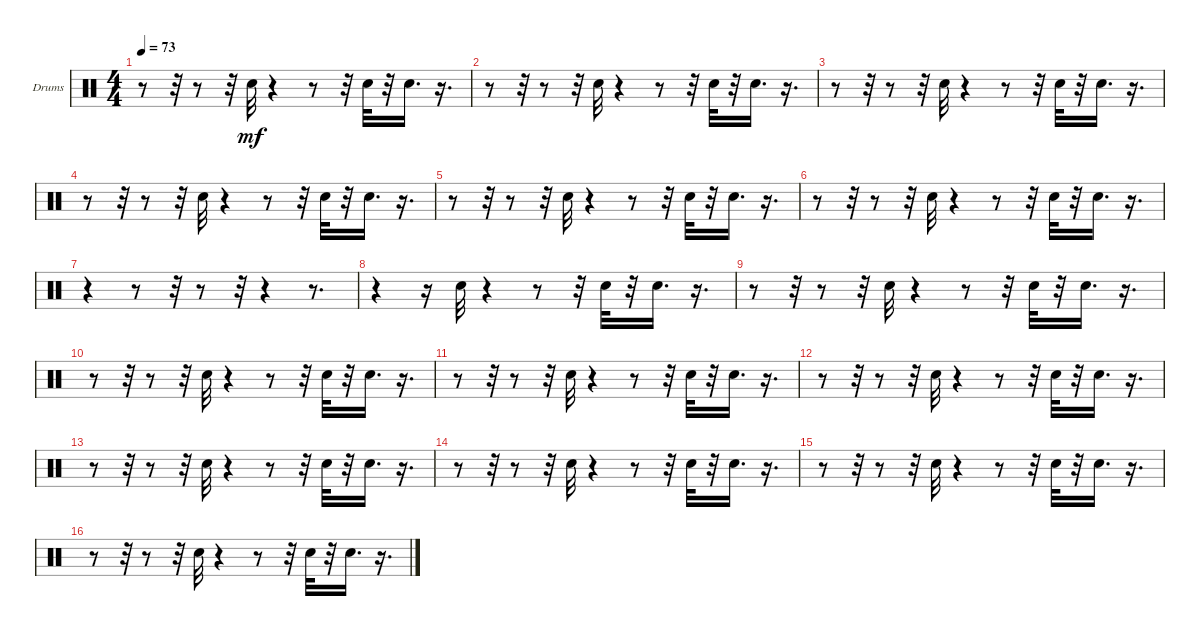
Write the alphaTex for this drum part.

\bracketExtendMode groupsimilarinstruments
\firstSystemTrackNameOrientation horizontal
\otherSystemsTrackNameOrientation horizontal
\track ("snare" "Drums") {instrument percussion}
\staff {score}
\articulation defaults
\ts (4 4)
\tempo 73
\clef neutral
\ks c
r.8{dy mf} r.32 r.8 r.32 "Snare (hit) 2".32 r.4 r.8 r.32 "Snare (hit) 2".32 r.32 "Snare (hit) 2".16{d} r.16{d} |
r.8 r.32 r.8 r.32 "Snare (hit) 2".32 r.4 r.8 r.32 "Snare (hit) 2".32 r.32 "Snare (hit) 2".16{d} r.16{d} |
r.8 r.32 r.8 r.32 "Snare (hit) 2".32 r.4 r.8 r.32 "Snare (hit) 2".32 r.32 "Snare (hit) 2".16{d} r.16{d} |
r.8 r.32 r.8 r.32 "Snare (hit) 2".32 r.4 r.8 r.32 "Snare (hit) 2".32 r.32 "Snare (hit) 2".16{d} r.16{d} |
r.8 r.32 r.8 r.32 "Snare (hit) 2".32 r.4 r.8 r.32 "Snare (hit) 2".32 r.32 "Snare (hit) 2".16{d} r.16{d} |
r.8 r.32 r.8 r.32 "Snare (hit) 2".32 r.4 r.8 r.32 "Snare (hit) 2".32 r.32 "Snare (hit) 2".16{d} r.16{d} |
r.4 r.8 r.32 r.8 r.32 r.4 r.8{d} |
r.4 r.16 "Snare (hit) 2".32 r.4 r.8 r.32 "Snare (hit) 2".32 r.32 "Snare (hit) 2".16{d} r.16{d} |
r.8 r.32 r.8 r.32 "Snare (hit) 2".32 r.4 r.8 r.32 "Snare (hit) 2".32 r.32 "Snare (hit) 2".16{d} r.16{d} |
r.8 r.32 r.8 r.32 "Snare (hit) 2".32 r.4 r.8 r.32 "Snare (hit) 2".32 r.32 "Snare (hit) 2".16{d} r.16{d} |
r.8 r.32 r.8 r.32 "Snare (hit) 2".32 r.4 r.8 r.32 "Snare (hit) 2".32 r.32 "Snare (hit) 2".16{d} r.16{d} |
r.8 r.32 r.8 r.32 "Snare (hit) 2".32 r.4 r.8 r.32 "Snare (hit) 2".32 r.32 "Snare (hit) 2".16{d} r.16{d} |
r.8 r.32 r.8 r.32 "Snare (hit) 2".32 r.4 r.8 r.32 "Snare (hit) 2".32 r.32 "Snare (hit) 2".16{d} r.16{d} |
r.8 r.32 r.8 r.32 "Snare (hit) 2".32 r.4 r.8 r.32 "Snare (hit) 2".32 r.32 "Snare (hit) 2".16{d} r.16{d} |
r.8 r.32 r.8 r.32 "Snare (hit) 2".32 r.4 r.8 r.32 "Snare (hit) 2".32 r.32 "Snare (hit) 2".16{d} r.16{d} |
r.8 r.32 r.8 r.32 "Snare (hit) 2".32 r.4 r.8 r.32 "Snare (hit) 2".32 r.32 "Snare (hit) 2".16{d} r.16{d}
